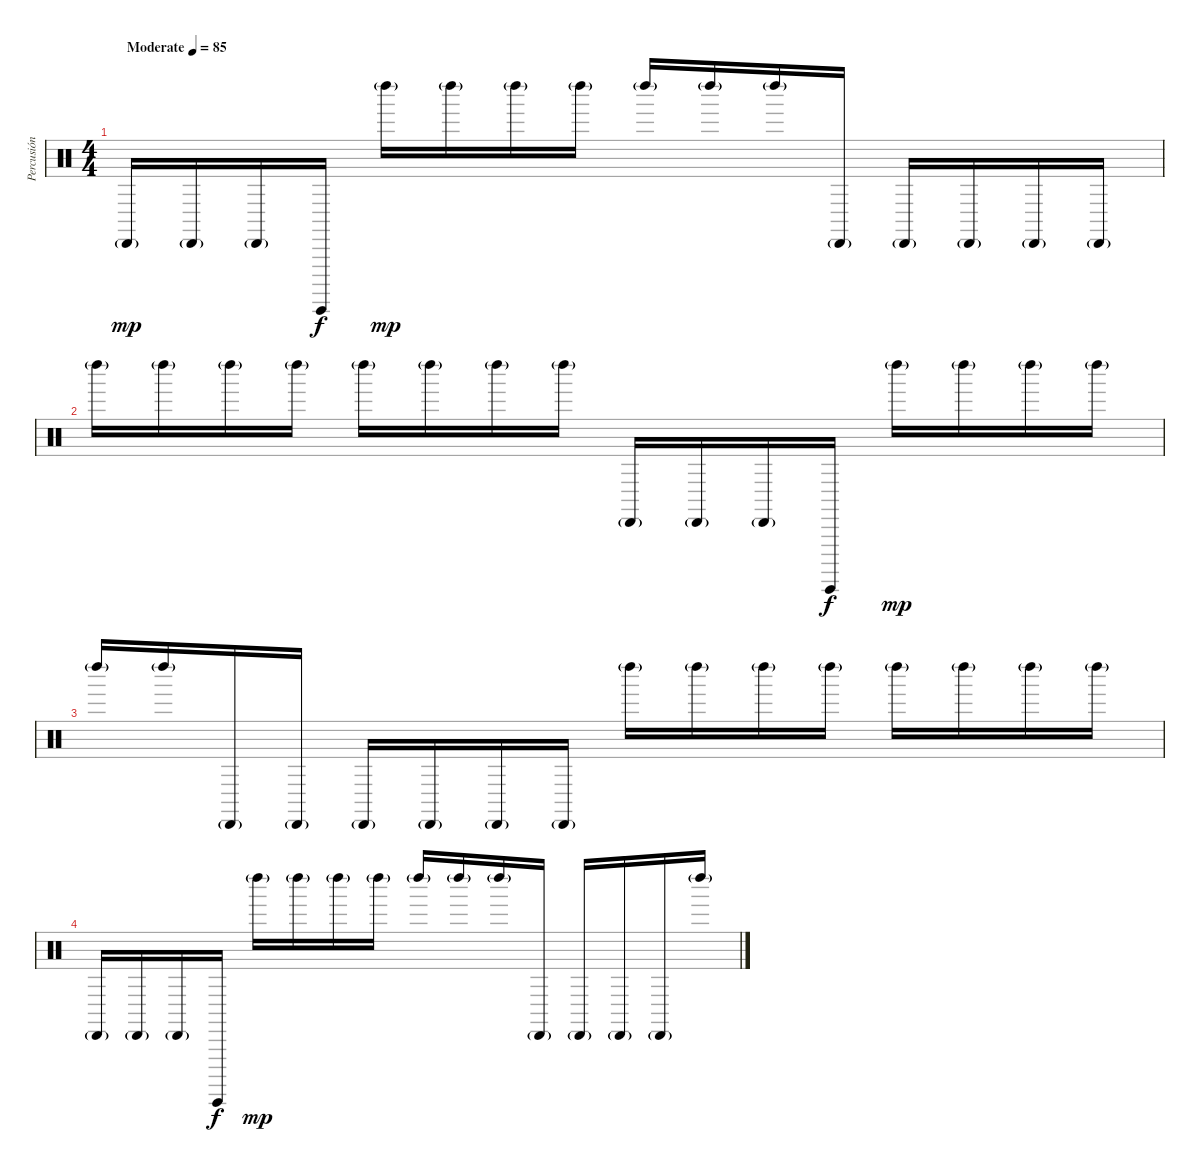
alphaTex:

\track ("Percusión" "Percusión") {instrument percussion}
\staff {score}
\articulation defaults
\ts (4 4)
\tempo (85 "Moderate")
\clef neutral
\ks c "Cabasa (hit)"{g}.16{dy mp} "Cabasa (hit)"{g}.16 "Cabasa (hit)"{g}.16 "Guiro (hit)".16{dy f} "Left Maraca (hit)"{g}.16{dy mp} "Left Maraca (hit)"{g}.16 "Left Maraca (hit)"{g}.16 "Left Maraca (hit)"{g}.16 "Left Maraca (hit)"{g}.16 "Left Maraca (hit)"{g}.16 "Left Maraca (hit)"{g}.16 "Cabasa (hit)"{g}.16 "Cabasa (hit)"{g}.16 "Cabasa (hit)"{g}.16 "Cabasa (hit)"{g}.16 "Cabasa (hit)"{g}.16
|
"Left Maraca (hit)"{g}.16 "Left Maraca (hit)"{g}.16 "Left Maraca (hit)"{g}.16 "Left Maraca (hit)"{g}.16 "Left Maraca (hit)"{g}.16 "Left Maraca (hit)"{g}.16 "Left Maraca (hit)"{g}.16 "Left Maraca (hit)"{g}.16 "Cabasa (hit)"{g}.16 "Cabasa (hit)"{g}.16 "Cabasa (hit)"{g}.16 "Guiro (hit)".16{dy f} "Left Maraca (hit)"{g}.16{dy mp} "Left Maraca (hit)"{g}.16 "Left Maraca (hit)"{g}.16 "Left Maraca (hit)"{g}.16 |
"Left Maraca (hit)"{g}.16 "Left Maraca (hit)"{g}.16 "Cabasa (hit)"{g}.16 "Cabasa (hit)"{g}.16 "Cabasa (hit)"{g}.16 "Cabasa (hit)"{g}.16 "Cabasa (hit)"{g}.16 "Cabasa (hit)"{g}.16 "Left Maraca (hit)"{g}.16 "Left Maraca (hit)"{g}.16 "Left Maraca (hit)"{g}.16 "Left Maraca (hit)"{g}.16 "Left Maraca (hit)"{g}.16 "Left Maraca (hit)"{g}.16 "Left Maraca (hit)"{g}.16 "Left Maraca (hit)"{g}.16 |
"Cabasa (hit)"{g}.16 "Cabasa (hit)"{g}.16 "Cabasa (hit)"{g}.16 "Guiro (hit)".16{dy f} "Left Maraca (hit)"{g}.16{dy mp} "Left Maraca (hit)"{g}.16 "Left Maraca (hit)"{g}.16 "Left Maraca (hit)"{g}.16 "Left Maraca (hit)"{g}.16 "Left Maraca (hit)"{g}.16 "Left Maraca (hit)"{g}.16 "Cabasa (hit)"{g}.16 "Cabasa (hit)"{g}.16 "Cabasa (hit)"{g}.16 "Cabasa (hit)"{g}.16 "Left Maraca (hit)"{g}.16
